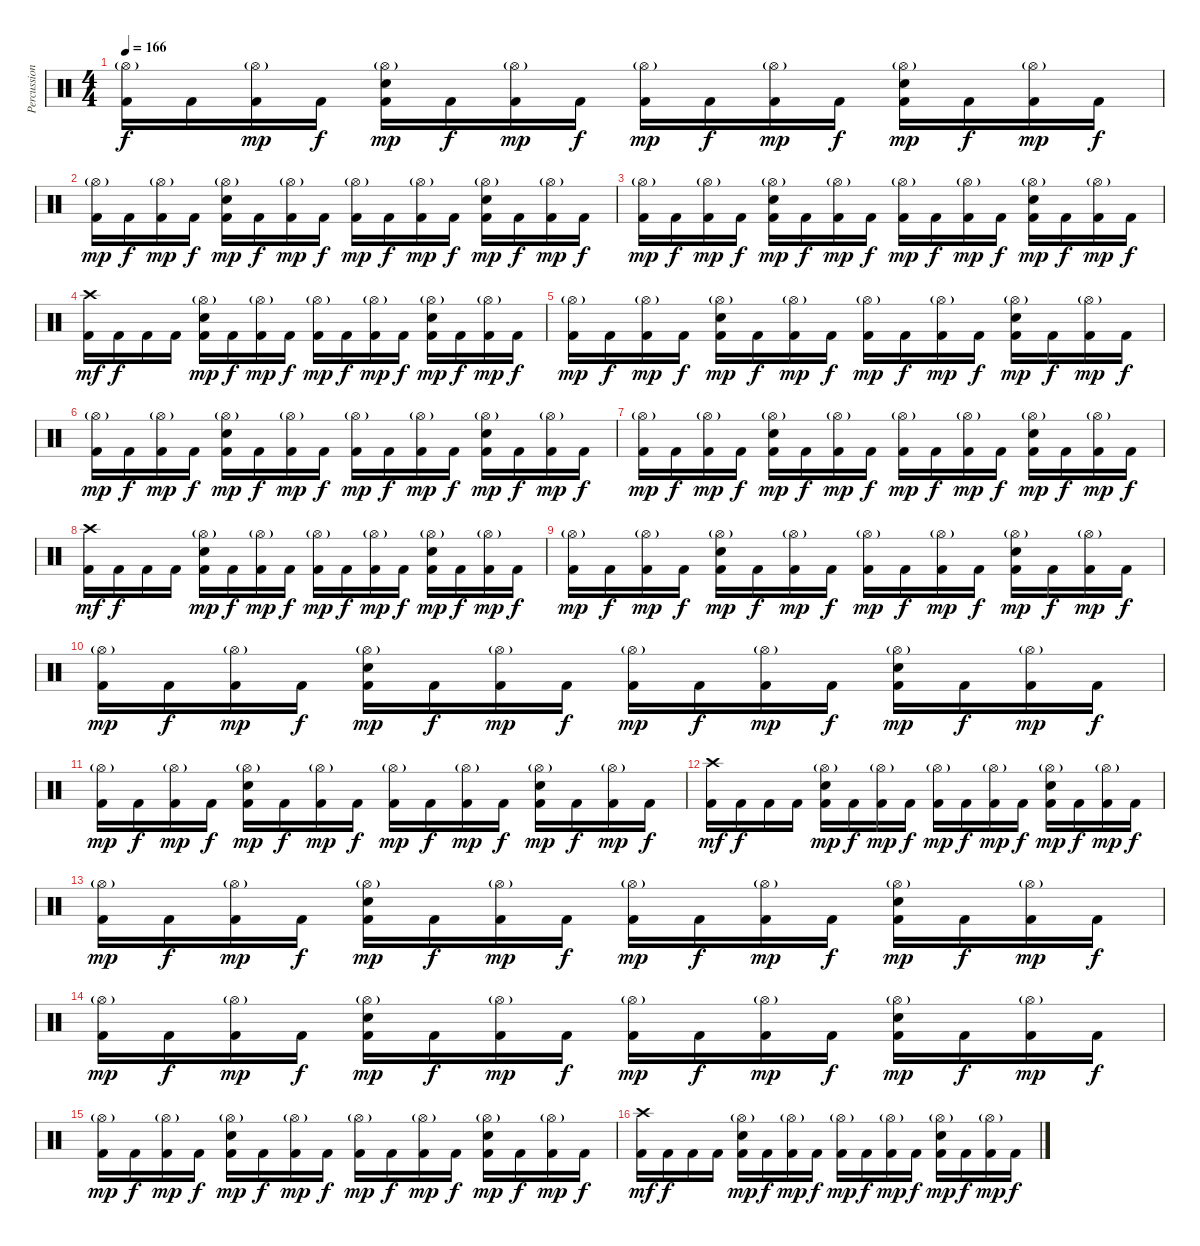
\track ("Percussion" "Percussion") {instrument percussion}
\staff {score}
\articulation defaults
\ts (4 4)
\tempo 166
\clef neutral
\ks c
("Kick (hit) 2" "Hi-Hat (open)"{g}).16{dy f} "Kick (hit) 2".16 ("Kick (hit) 2" "Hi-Hat (open)"{g}).16{dy mp} "Kick (hit) 2".16{dy f} ("Kick (hit) 2" "Electric Snare (hit)" "Hi-Hat (open)"{g}).16{dy mp} "Kick (hit) 2".16{dy f} ("Kick (hit) 2" "Hi-Hat (open)"{g}).16{dy mp} "Kick (hit) 2".16{dy f} ("Kick (hit) 2" "Hi-Hat (open)"{g}).16{dy mp} "Kick (hit) 2".16{dy f} ("Kick (hit) 2" "Hi-Hat (open)"{g}).16{dy mp} "Kick (hit) 2".16{dy f} ("Kick (hit) 2" "Electric Snare (hit)" "Hi-Hat (open)"{g}).16{dy mp} "Kick (hit) 2".16{dy f} ("Kick (hit) 2" "Hi-Hat (open)"{g}).16{dy mp} "Kick (hit) 2".16{dy f} |
("Kick (hit) 2" "Hi-Hat (open)"{g}).16{dy mp} "Kick (hit) 2".16{dy f} ("Kick (hit) 2" "Hi-Hat (open)"{g}).16{dy mp} "Kick (hit) 2".16{dy f} ("Kick (hit) 2" "Electric Snare (hit)" "Hi-Hat (open)"{g}).16{dy mp} "Kick (hit) 2".16{dy f} ("Kick (hit) 2" "Hi-Hat (open)"{g}).16{dy mp} "Kick (hit) 2".16{dy f} ("Kick (hit) 2" "Hi-Hat (open)"{g}).16{dy mp} "Kick (hit) 2".16{dy f} ("Kick (hit) 2" "Hi-Hat (open)"{g}).16{dy mp} "Kick (hit) 2".16{dy f} ("Kick (hit) 2" "Electric Snare (hit)" "Hi-Hat (open)"{g}).16{dy mp} "Kick (hit) 2".16{dy f} ("Kick (hit) 2" "Hi-Hat (open)"{g}).16{dy mp} "Kick (hit) 2".16{dy f} |
("Kick (hit) 2" "Hi-Hat (open)"{g}).16{dy mp} "Kick (hit) 2".16{dy f} ("Kick (hit) 2" "Hi-Hat (open)"{g}).16{dy mp} "Kick (hit) 2".16{dy f} ("Kick (hit) 2" "Electric Snare (hit)" "Hi-Hat (open)"{g}).16{dy mp} "Kick (hit) 2".16{dy f} ("Kick (hit) 2" "Hi-Hat (open)"{g}).16{dy mp} "Kick (hit) 2".16{dy f} ("Kick (hit) 2" "Hi-Hat (open)"{g}).16{dy mp} "Kick (hit) 2".16{dy f} ("Kick (hit) 2" "Hi-Hat (open)"{g}).16{dy mp} "Kick (hit) 2".16{dy f} ("Kick (hit) 2" "Electric Snare (hit)" "Hi-Hat (open)"{g}).16{dy mp} "Kick (hit) 2".16{dy f} ("Kick (hit) 2" "Hi-Hat (open)"{g}).16{dy mp} "Kick (hit) 2".16{dy f} |
("Kick (hit) 2" "Crash high (hit)").16{dy mf} "Kick (hit) 2".16{dy f} "Kick (hit) 2".16 "Kick (hit) 2".16 ("Kick (hit) 2" "Electric Snare (hit)" "Hi-Hat (open)"{g}).16{dy mp} "Kick (hit) 2".16{dy f} ("Kick (hit) 2" "Hi-Hat (open)"{g}).16{dy mp} "Kick (hit) 2".16{dy f} ("Kick (hit) 2" "Hi-Hat (open)"{g}).16{dy mp} "Kick (hit) 2".16{dy f} ("Kick (hit) 2" "Hi-Hat (open)"{g}).16{dy mp} "Kick (hit) 2".16{dy f} ("Kick (hit) 2" "Electric Snare (hit)" "Hi-Hat (open)"{g}).16{dy mp} "Kick (hit) 2".16{dy f} ("Kick (hit) 2" "Hi-Hat (open)"{g}).16{dy mp} "Kick (hit) 2".16{dy f} |
("Kick (hit) 2" "Hi-Hat (open)"{g}).16{dy mp} "Kick (hit) 2".16{dy f} ("Kick (hit) 2" "Hi-Hat (open)"{g}).16{dy mp} "Kick (hit) 2".16{dy f} ("Kick (hit) 2" "Electric Snare (hit)" "Hi-Hat (open)"{g}).16{dy mp} "Kick (hit) 2".16{dy f} ("Kick (hit) 2" "Hi-Hat (open)"{g}).16{dy mp} "Kick (hit) 2".16{dy f} ("Kick (hit) 2" "Hi-Hat (open)"{g}).16{dy mp} "Kick (hit) 2".16{dy f} ("Kick (hit) 2" "Hi-Hat (open)"{g}).16{dy mp} "Kick (hit) 2".16{dy f} ("Kick (hit) 2" "Electric Snare (hit)" "Hi-Hat (open)"{g}).16{dy mp} "Kick (hit) 2".16{dy f} ("Kick (hit) 2" "Hi-Hat (open)"{g}).16{dy mp} "Kick (hit) 2".16{dy f} |
("Kick (hit) 2" "Hi-Hat (open)"{g}).16{dy mp} "Kick (hit) 2".16{dy f} ("Kick (hit) 2" "Hi-Hat (open)"{g}).16{dy mp} "Kick (hit) 2".16{dy f} ("Kick (hit) 2" "Electric Snare (hit)" "Hi-Hat (open)"{g}).16{dy mp} "Kick (hit) 2".16{dy f} ("Kick (hit) 2" "Hi-Hat (open)"{g}).16{dy mp} "Kick (hit) 2".16{dy f} ("Kick (hit) 2" "Hi-Hat (open)"{g}).16{dy mp} "Kick (hit) 2".16{dy f} ("Kick (hit) 2" "Hi-Hat (open)"{g}).16{dy mp} "Kick (hit) 2".16{dy f} ("Kick (hit) 2" "Electric Snare (hit)" "Hi-Hat (open)"{g}).16{dy mp} "Kick (hit) 2".16{dy f} ("Kick (hit) 2" "Hi-Hat (open)"{g}).16{dy mp} "Kick (hit) 2".16{dy f} |
("Kick (hit) 2" "Hi-Hat (open)"{g}).16{dy mp} "Kick (hit) 2".16{dy f} ("Kick (hit) 2" "Hi-Hat (open)"{g}).16{dy mp} "Kick (hit) 2".16{dy f} ("Kick (hit) 2" "Electric Snare (hit)" "Hi-Hat (open)"{g}).16{dy mp} "Kick (hit) 2".16{dy f} ("Kick (hit) 2" "Hi-Hat (open)"{g}).16{dy mp} "Kick (hit) 2".16{dy f} ("Kick (hit) 2" "Hi-Hat (open)"{g}).16{dy mp} "Kick (hit) 2".16{dy f} ("Kick (hit) 2" "Hi-Hat (open)"{g}).16{dy mp} "Kick (hit) 2".16{dy f} ("Kick (hit) 2" "Electric Snare (hit)" "Hi-Hat (open)"{g}).16{dy mp} "Kick (hit) 2".16{dy f} ("Kick (hit) 2" "Hi-Hat (open)"{g}).16{dy mp} "Kick (hit) 2".16{dy f} |
("Kick (hit) 2" "Crash high (hit)").16{dy mf} "Kick (hit) 2".16{dy f} "Kick (hit) 2".16 "Kick (hit) 2".16 ("Kick (hit) 2" "Electric Snare (hit)" "Hi-Hat (open)"{g}).16{dy mp} "Kick (hit) 2".16{dy f} ("Kick (hit) 2" "Hi-Hat (open)"{g}).16{dy mp} "Kick (hit) 2".16{dy f} ("Kick (hit) 2" "Hi-Hat (open)"{g}).16{dy mp} "Kick (hit) 2".16{dy f} ("Kick (hit) 2" "Hi-Hat (open)"{g}).16{dy mp} "Kick (hit) 2".16{dy f} ("Kick (hit) 2" "Electric Snare (hit)" "Hi-Hat (open)"{g}).16{dy mp} "Kick (hit) 2".16{dy f} ("Kick (hit) 2" "Hi-Hat (open)"{g}).16{dy mp} "Kick (hit) 2".16{dy f} |
("Kick (hit) 2" "Hi-Hat (open)"{g}).16{dy mp} "Kick (hit) 2".16{dy f} ("Kick (hit) 2" "Hi-Hat (open)"{g}).16{dy mp} "Kick (hit) 2".16{dy f} ("Kick (hit) 2" "Electric Snare (hit)" "Hi-Hat (open)"{g}).16{dy mp} "Kick (hit) 2".16{dy f} ("Kick (hit) 2" "Hi-Hat (open)"{g}).16{dy mp} "Kick (hit) 2".16{dy f} ("Kick (hit) 2" "Hi-Hat (open)"{g}).16{dy mp} "Kick (hit) 2".16{dy f} ("Kick (hit) 2" "Hi-Hat (open)"{g}).16{dy mp} "Kick (hit) 2".16{dy f} ("Kick (hit) 2" "Electric Snare (hit)" "Hi-Hat (open)"{g}).16{dy mp} "Kick (hit) 2".16{dy f} ("Kick (hit) 2" "Hi-Hat (open)"{g}).16{dy mp} "Kick (hit) 2".16{dy f} |
("Kick (hit) 2" "Hi-Hat (open)"{g}).16{dy mp} "Kick (hit) 2".16{dy f} ("Kick (hit) 2" "Hi-Hat (open)"{g}).16{dy mp} "Kick (hit) 2".16{dy f} ("Kick (hit) 2" "Electric Snare (hit)" "Hi-Hat (open)"{g}).16{dy mp} "Kick (hit) 2".16{dy f} ("Kick (hit) 2" "Hi-Hat (open)"{g}).16{dy mp} "Kick (hit) 2".16{dy f} ("Kick (hit) 2" "Hi-Hat (open)"{g}).16{dy mp} "Kick (hit) 2".16{dy f} ("Kick (hit) 2" "Hi-Hat (open)"{g}).16{dy mp} "Kick (hit) 2".16{dy f} ("Kick (hit) 2" "Electric Snare (hit)" "Hi-Hat (open)"{g}).16{dy mp} "Kick (hit) 2".16{dy f} ("Kick (hit) 2" "Hi-Hat (open)"{g}).16{dy mp} "Kick (hit) 2".16{dy f} |
("Kick (hit) 2" "Hi-Hat (open)"{g}).16{dy mp} "Kick (hit) 2".16{dy f} ("Kick (hit) 2" "Hi-Hat (open)"{g}).16{dy mp} "Kick (hit) 2".16{dy f} ("Kick (hit) 2" "Electric Snare (hit)" "Hi-Hat (open)"{g}).16{dy mp} "Kick (hit) 2".16{dy f} ("Kick (hit) 2" "Hi-Hat (open)"{g}).16{dy mp} "Kick (hit) 2".16{dy f} ("Kick (hit) 2" "Hi-Hat (open)"{g}).16{dy mp} "Kick (hit) 2".16{dy f} ("Kick (hit) 2" "Hi-Hat (open)"{g}).16{dy mp} "Kick (hit) 2".16{dy f} ("Kick (hit) 2" "Electric Snare (hit)" "Hi-Hat (open)"{g}).16{dy mp} "Kick (hit) 2".16{dy f} ("Kick (hit) 2" "Hi-Hat (open)"{g}).16{dy mp} "Kick (hit) 2".16{dy f} |
("Kick (hit) 2" "Crash high (hit)").16{dy mf} "Kick (hit) 2".16{dy f} "Kick (hit) 2".16 "Kick (hit) 2".16 ("Kick (hit) 2" "Electric Snare (hit)" "Hi-Hat (open)"{g}).16{dy mp} "Kick (hit) 2".16{dy f} ("Kick (hit) 2" "Hi-Hat (open)"{g}).16{dy mp} "Kick (hit) 2".16{dy f} ("Kick (hit) 2" "Hi-Hat (open)"{g}).16{dy mp} "Kick (hit) 2".16{dy f} ("Kick (hit) 2" "Hi-Hat (open)"{g}).16{dy mp} "Kick (hit) 2".16{dy f} ("Kick (hit) 2" "Electric Snare (hit)" "Hi-Hat (open)"{g}).16{dy mp} "Kick (hit) 2".16{dy f} ("Kick (hit) 2" "Hi-Hat (open)"{g}).16{dy mp} "Kick (hit) 2".16{dy f} |
("Kick (hit) 2" "Hi-Hat (open)"{g}).16{dy mp} "Kick (hit) 2".16{dy f} ("Kick (hit) 2" "Hi-Hat (open)"{g}).16{dy mp} "Kick (hit) 2".16{dy f} ("Kick (hit) 2" "Electric Snare (hit)" "Hi-Hat (open)"{g}).16{dy mp} "Kick (hit) 2".16{dy f} ("Kick (hit) 2" "Hi-Hat (open)"{g}).16{dy mp} "Kick (hit) 2".16{dy f} ("Kick (hit) 2" "Hi-Hat (open)"{g}).16{dy mp} "Kick (hit) 2".16{dy f} ("Kick (hit) 2" "Hi-Hat (open)"{g}).16{dy mp} "Kick (hit) 2".16{dy f} ("Kick (hit) 2" "Electric Snare (hit)" "Hi-Hat (open)"{g}).16{dy mp} "Kick (hit) 2".16{dy f} ("Kick (hit) 2" "Hi-Hat (open)"{g}).16{dy mp} "Kick (hit) 2".16{dy f} |
("Kick (hit) 2" "Hi-Hat (open)"{g}).16{dy mp} "Kick (hit) 2".16{dy f} ("Kick (hit) 2" "Hi-Hat (open)"{g}).16{dy mp} "Kick (hit) 2".16{dy f} ("Kick (hit) 2" "Electric Snare (hit)" "Hi-Hat (open)"{g}).16{dy mp} "Kick (hit) 2".16{dy f} ("Kick (hit) 2" "Hi-Hat (open)"{g}).16{dy mp} "Kick (hit) 2".16{dy f} ("Kick (hit) 2" "Hi-Hat (open)"{g}).16{dy mp} "Kick (hit) 2".16{dy f} ("Kick (hit) 2" "Hi-Hat (open)"{g}).16{dy mp} "Kick (hit) 2".16{dy f} ("Kick (hit) 2" "Electric Snare (hit)" "Hi-Hat (open)"{g}).16{dy mp} "Kick (hit) 2".16{dy f} ("Kick (hit) 2" "Hi-Hat (open)"{g}).16{dy mp} "Kick (hit) 2".16{dy f} |
("Kick (hit) 2" "Hi-Hat (open)"{g}).16{dy mp} "Kick (hit) 2".16{dy f} ("Kick (hit) 2" "Hi-Hat (open)"{g}).16{dy mp} "Kick (hit) 2".16{dy f} ("Kick (hit) 2" "Electric Snare (hit)" "Hi-Hat (open)"{g}).16{dy mp} "Kick (hit) 2".16{dy f} ("Kick (hit) 2" "Hi-Hat (open)"{g}).16{dy mp} "Kick (hit) 2".16{dy f} ("Kick (hit) 2" "Hi-Hat (open)"{g}).16{dy mp} "Kick (hit) 2".16{dy f} ("Kick (hit) 2" "Hi-Hat (open)"{g}).16{dy mp} "Kick (hit) 2".16{dy f} ("Kick (hit) 2" "Electric Snare (hit)" "Hi-Hat (open)"{g}).16{dy mp} "Kick (hit) 2".16{dy f} ("Kick (hit) 2" "Hi-Hat (open)"{g}).16{dy mp} "Kick (hit) 2".16{dy f} |
("Kick (hit) 2" "Crash high (hit)").16{dy mf} "Kick (hit) 2".16{dy f} "Kick (hit) 2".16 "Kick (hit) 2".16 ("Kick (hit) 2" "Electric Snare (hit)" "Hi-Hat (open)"{g}).16{dy mp} "Kick (hit) 2".16{dy f} ("Kick (hit) 2" "Hi-Hat (open)"{g}).16{dy mp} "Kick (hit) 2".16{dy f} ("Kick (hit) 2" "Hi-Hat (open)"{g}).16{dy mp} "Kick (hit) 2".16{dy f} ("Kick (hit) 2" "Hi-Hat (open)"{g}).16{dy mp} "Kick (hit) 2".16{dy f} ("Kick (hit) 2" "Electric Snare (hit)" "Hi-Hat (open)"{g}).16{dy mp} "Kick (hit) 2".16{dy f} ("Kick (hit) 2" "Hi-Hat (open)"{g}).16{dy mp} "Kick (hit) 2".16{dy f}
